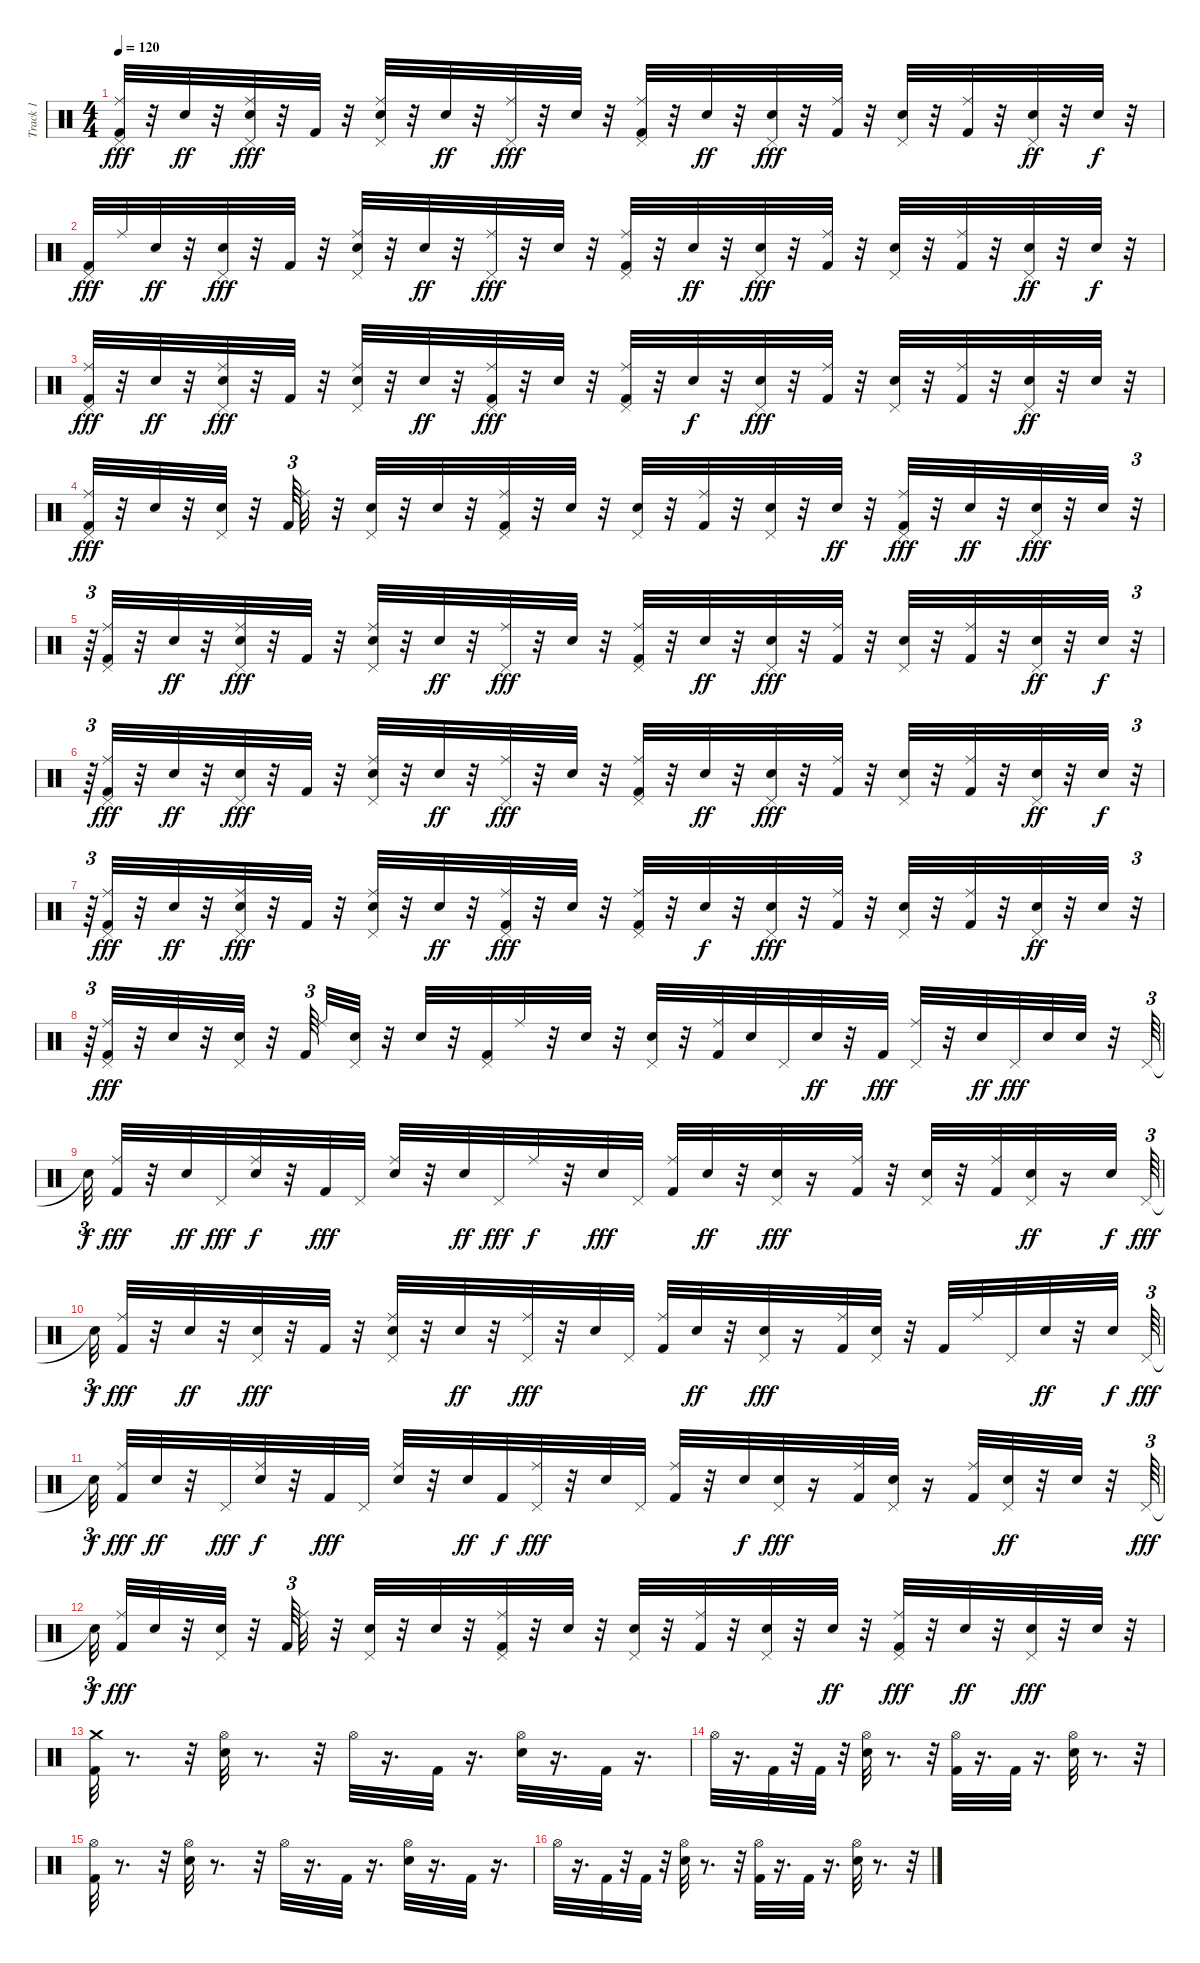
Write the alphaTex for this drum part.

\track ("Track 1" "Track 1") {instrument percussion}
\staff {score}
\articulation defaults
\ts (4 4)
\tempo 120
\clef neutral
\ks c
("Pedal Hi-Hat (hit)" "Kick (hit) 2" "Ride (middle)").32{dy fff} r.32 "Snare (hit) 2".32{dy ff} r.32 ("Pedal Hi-Hat (hit)" "Snare (hit) 2" "Ride (middle)").32{dy fff} r.32 "Kick (hit) 2".32 r.32 ("Pedal Hi-Hat (hit)" "Ride (middle)" "Snare (hit) 2").32 r.32 "Snare (hit) 2".32{dy ff} r.32 ("Pedal Hi-Hat (hit)" "Ride (middle)").32{dy fff} r.32 "Snare (hit) 2".32 r.32 ("Pedal Hi-Hat (hit)" "Kick (hit) 2" "Ride (middle)").32 r.32 "Snare (hit) 2".32{dy ff} r.32 ("Pedal Hi-Hat (hit)" "Snare (hit) 2").32{dy fff} r.32 ("Kick (hit) 2" "Ride (middle)").32 r.32 ("Pedal Hi-Hat (hit)" "Snare (hit) 2").32 r.32 ("Ride (middle)" "Kick (hit) 2").32 r.32 ("Pedal Hi-Hat (hit)" "Snare (hit) 2").32{dy ff} r.32 "Snare (hit) 2".32{dy f} r.32 |
("Pedal Hi-Hat (hit)" "Kick (hit) 2").32{dy fff} "Ride (middle)".32 "Snare (hit) 2".32{dy ff} r.32 ("Pedal Hi-Hat (hit)" "Snare (hit) 2").32{dy fff} r.32 "Kick (hit) 2".32 r.32 ("Pedal Hi-Hat (hit)" "Ride (middle)" "Snare (hit) 2").32 r.32 "Snare (hit) 2".32{dy ff} r.32 ("Pedal Hi-Hat (hit)" "Ride (middle)").32{dy fff} r.32 "Snare (hit) 2".32 r.32 ("Pedal Hi-Hat (hit)" "Kick (hit) 2" "Ride (middle)").32 r.32 "Snare (hit) 2".32{dy ff} r.32 ("Snare (hit) 2" "Pedal Hi-Hat (hit)").32{dy fff} r.32 ("Kick (hit) 2" "Ride (middle)").32 r.32 ("Pedal Hi-Hat (hit)" "Snare (hit) 2").32 r.32 ("Kick (hit) 2" "Ride (middle)").32 r.32 ("Pedal Hi-Hat (hit)" "Snare (hit) 2").32{dy ff} r.32 "Snare (hit) 2".32{dy f} r.32 |
("Pedal Hi-Hat (hit)" "Kick (hit) 2" "Ride (middle)").32{dy fff} r.32 "Snare (hit) 2".32{dy ff} r.32 ("Pedal Hi-Hat (hit)" "Snare (hit) 2" "Ride (middle)").32{dy fff} r.32 "Kick (hit) 2".32 r.32 ("Pedal Hi-Hat (hit)" "Snare (hit) 2" "Ride (middle)").32 r.32 "Snare (hit) 2".32{dy ff} r.32 ("Kick (hit) 2" "Pedal Hi-Hat (hit)" "Ride (middle)").32{dy fff} r.32 "Snare (hit) 2".32 r.32 ("Pedal Hi-Hat (hit)" "Kick (hit) 2" "Ride (middle)").32 r.32 "Snare (hit) 2".32{dy f} r.32 ("Snare (hit) 2" "Pedal Hi-Hat (hit)").32{dy fff} r.32 ("Kick (hit) 2" "Ride (middle)").32 r.32 ("Snare (hit) 2" "Pedal Hi-Hat (hit)").32 r.32 ("Kick (hit) 2" "Ride (middle)").32 r.32 ("Pedal Hi-Hat (hit)" "Snare (hit) 2").32{dy ff} r.32 "Snare (hit) 2".32 r.32 |
("Pedal Hi-Hat (hit)" "Kick (hit) 2" "Ride (middle)").32{dy fff} r.32 "Snare (hit) 2".32 r.32 ("Pedal Hi-Hat (hit)" "Snare (hit) 2").32 r.32 "Kick (hit) 2".64{tu (3 2)} "Ride (middle)".32 r.32 ("Pedal Hi-Hat (hit)" "Snare (hit) 2").32 r.32 "Snare (hit) 2".32 r.32 ("Pedal Hi-Hat (hit)" "Kick (hit) 2" "Ride (middle)").32 r.32 "Snare (hit) 2".32 r.32 ("Snare (hit) 2" "Pedal Hi-Hat (hit)").32 r.32 ("Kick (hit) 2" "Ride (middle)").32 r.32 ("Snare (hit) 2" "Pedal Hi-Hat (hit)").32 r.32 "Snare (hit) 2".32{dy ff} r.32 ("Kick (hit) 2" "Pedal Hi-Hat (hit)" "Ride (middle)").32{dy fff} r.32 "Snare (hit) 2".32{dy ff} r.32 ("Pedal Hi-Hat (hit)" "Snare (hit) 2").32{dy fff} r.32 "Snare (hit) 2".32 r.32{tu (3 2)} |
r.64{tu (3 2)} ("Pedal Hi-Hat (hit)" "Kick (hit) 2" "Ride (middle)").32 r.32 "Snare (hit) 2".32{dy ff} r.32 ("Pedal Hi-Hat (hit)" "Snare (hit) 2" "Ride (middle)").32{dy fff} r.32 "Kick (hit) 2".32 r.32 ("Pedal Hi-Hat (hit)" "Ride (middle)" "Snare (hit) 2").32 r.32 "Snare (hit) 2".32{dy ff} r.32 ("Pedal Hi-Hat (hit)" "Ride (middle)").32{dy fff} r.32 "Snare (hit) 2".32 r.32 ("Pedal Hi-Hat (hit)" "Kick (hit) 2" "Ride (middle)").32 r.32 "Snare (hit) 2".32{dy ff} r.32 ("Pedal Hi-Hat (hit)" "Snare (hit) 2").32{dy fff} r.32 ("Kick (hit) 2" "Ride (middle)").32 r.32 ("Pedal Hi-Hat (hit)" "Snare (hit) 2").32 r.32 ("Ride (middle)" "Kick (hit) 2").32 r.32 ("Pedal Hi-Hat (hit)" "Snare (hit) 2").32{dy ff} r.32 "Snare (hit) 2".32{dy f} r.32{tu (3 2)} |
r.64{tu (3 2)} ("Pedal Hi-Hat (hit)" "Kick (hit) 2" "Ride (middle)").32{dy fff} r.32 "Snare (hit) 2".32{dy ff} r.32 ("Pedal Hi-Hat (hit)" "Snare (hit) 2").32{dy fff} r.32 "Kick (hit) 2".32 r.32 ("Pedal Hi-Hat (hit)" "Ride (middle)" "Snare (hit) 2").32 r.32 "Snare (hit) 2".32{dy ff} r.32 ("Pedal Hi-Hat (hit)" "Ride (middle)").32{dy fff} r.32 "Snare (hit) 2".32 r.32 ("Pedal Hi-Hat (hit)" "Kick (hit) 2" "Ride (middle)").32 r.32 "Snare (hit) 2".32{dy ff} r.32 ("Snare (hit) 2" "Pedal Hi-Hat (hit)").32{dy fff} r.32 ("Kick (hit) 2" "Ride (middle)").32 r.32 ("Pedal Hi-Hat (hit)" "Snare (hit) 2").32 r.32 ("Kick (hit) 2" "Ride (middle)").32 r.32 ("Pedal Hi-Hat (hit)" "Snare (hit) 2").32{dy ff} r.32 "Snare (hit) 2".32{dy f} r.32{tu (3 2)} |
r.64{tu (3 2)} ("Pedal Hi-Hat (hit)" "Kick (hit) 2" "Ride (middle)").32{dy fff} r.32 "Snare (hit) 2".32{dy ff} r.32 ("Pedal Hi-Hat (hit)" "Snare (hit) 2" "Ride (middle)").32{dy fff} r.32 "Kick (hit) 2".32 r.32 ("Pedal Hi-Hat (hit)" "Snare (hit) 2" "Ride (middle)").32 r.32 "Snare (hit) 2".32{dy ff} r.32 ("Kick (hit) 2" "Pedal Hi-Hat (hit)" "Ride (middle)").32{dy fff} r.32 "Snare (hit) 2".32 r.32 ("Pedal Hi-Hat (hit)" "Kick (hit) 2" "Ride (middle)").32 r.32 "Snare (hit) 2".32{dy f} r.32 ("Snare (hit) 2" "Pedal Hi-Hat (hit)").32{dy fff} r.32 ("Kick (hit) 2" "Ride (middle)").32 r.32 ("Snare (hit) 2" "Pedal Hi-Hat (hit)").32 r.32 ("Kick (hit) 2" "Ride (middle)").32 r.32 ("Pedal Hi-Hat (hit)" "Snare (hit) 2").32{dy ff} r.32 "Snare (hit) 2".32 r.32{tu (3 2)} |
r.64{tu (3 2)} ("Pedal Hi-Hat (hit)" "Kick (hit) 2" "Ride (middle)").32{dy fff} r.32 "Snare (hit) 2".32 r.32 ("Pedal Hi-Hat (hit)" "Snare (hit) 2").32 r.32 "Kick (hit) 2".64{tu (3 2) beam splitsecondary} "Ride (middle)".32 ("Pedal Hi-Hat (hit)" "Snare (hit) 2").32 r.32 "Snare (hit) 2".32 r.32 ("Pedal Hi-Hat (hit)" "Kick (hit) 2").32 "Ride (middle)".32 r.32 "Snare (hit) 2".32 r.32 ("Snare (hit) 2" "Pedal Hi-Hat (hit)").32 r.32 ("Kick (hit) 2" "Ride (middle)").32 "Snare (hit) 2".32 "Pedal Hi-Hat (hit)".32 "Snare (hit) 2".32{dy ff} r.32 "Kick (hit) 2".32{dy fff} ("Pedal Hi-Hat (hit)" "Ride (middle)").32 r.32 "Snare (hit) 2".32{dy ff} "Pedal Hi-Hat (hit)".32{dy fff} "Snare (hit) 2".32 "Snare (hit) 2".32 r.32 "Pedal Hi-Hat (hit)".64{tu (3 2)} |
"Snare (hit)"{t}.32{tu (3 2) dy f} ("Kick (hit) 2" "Ride (middle)").32{dy fff} r.32 "Snare (hit) 2".32{dy ff} "Pedal Hi-Hat (hit)".32{dy fff} ("Snare (hit) 2" "Ride (middle)").32{dy f} r.32 "Kick (hit) 2".32{dy fff} "Pedal Hi-Hat (hit)".32 ("Ride (middle)" "Snare (hit) 2").32 r.32 "Snare (hit) 2".32{dy ff} "Pedal Hi-Hat (hit)".32{dy fff} "Ride (middle)".32{dy f} r.32 "Snare (hit) 2".32{dy fff} "Pedal Hi-Hat (hit)".32 ("Kick (hit) 2" "Ride (middle)").32 "Snare (hit) 2".32{dy ff} r.32 ("Pedal Hi-Hat (hit)" "Snare (hit) 2").32{dy fff} r.16 ("Kick (hit) 2" "Ride (middle)").32 r.32 ("Pedal Hi-Hat (hit)" "Snare (hit) 2").32 r.32 ("Ride (middle)" "Kick (hit) 2").32 ("Pedal Hi-Hat (hit)" "Snare (hit) 2").32{dy ff} r.16 "Snare (hit) 2".32{dy f} "Pedal Hi-Hat (hit)".64{tu (3 2) dy fff} |
"Snare (hit)"{t}.32{tu (3 2) dy f} ("Kick (hit) 2" "Ride (middle)").32{dy fff} r.32 "Snare (hit) 2".32{dy ff} r.32 ("Pedal Hi-Hat (hit)" "Snare (hit) 2").32{dy fff} r.32 "Kick (hit) 2".32 r.32 ("Pedal Hi-Hat (hit)" "Ride (middle)" "Snare (hit) 2").32 r.32 "Snare (hit) 2".32{dy ff} r.32 ("Pedal Hi-Hat (hit)" "Ride (middle)").32{dy fff} r.32 "Snare (hit) 2".32 "Pedal Hi-Hat (hit)".32 ("Kick (hit) 2" "Ride (middle)").32 "Snare (hit) 2".32{dy ff} r.32 ("Snare (hit) 2" "Pedal Hi-Hat (hit)").32{dy fff} r.16 ("Kick (hit) 2" "Ride (middle)").32 ("Pedal Hi-Hat (hit)" "Snare (hit) 2").32 r.32 "Kick (hit) 2".32 "Ride (middle)".32 "Pedal Hi-Hat (hit)".32 "Snare (hit) 2".32{dy ff} r.32 "Snare (hit) 2".32{dy f} "Pedal Hi-Hat (hit)".64{tu (3 2) dy fff} |
"Snare (hit)"{t}.32{tu (3 2) dy f beam splitsecondary} ("Kick (hit) 2" "Ride (middle)").32{dy fff} "Snare (hit) 2".32{dy ff} r.32 "Pedal Hi-Hat (hit)".32{dy fff} ("Snare (hit) 2" "Ride (middle)").32{dy f} r.32 "Kick (hit) 2".32{dy fff} "Pedal Hi-Hat (hit)".32 ("Snare (hit) 2" "Ride (middle)").32 r.32 "Snare (hit) 2".32{dy ff} "Kick (hit) 2".32{dy f} ("Pedal Hi-Hat (hit)" "Ride (middle)").32{dy fff} r.32 "Snare (hit) 2".32 "Pedal Hi-Hat (hit)".32 ("Kick (hit) 2" "Ride (middle)").32 r.32 "Snare (hit) 2".32{dy f} ("Snare (hit) 2" "Pedal Hi-Hat (hit)").32{dy fff} r.16 ("Kick (hit) 2" "Ride (middle)").32 ("Snare (hit) 2" "Pedal Hi-Hat (hit)").32 r.16 ("Kick (hit) 2" "Ride (middle)").32 ("Pedal Hi-Hat (hit)" "Snare (hit) 2").32{dy ff} r.32 "Snare (hit) 2".32 r.32 "Pedal Hi-Hat (hit)".64{tu (3 2) dy fff} |
"Snare (hit)"{t}.32{tu (3 2) dy f beam splitsecondary} ("Kick (hit) 2" "Ride (middle)").32{dy fff} "Snare (hit) 2".32 r.32 ("Pedal Hi-Hat (hit)" "Snare (hit) 2").32 r.32 "Kick (hit) 2".64{tu (3 2)} "Ride (middle)".32 r.32 ("Pedal Hi-Hat (hit)" "Snare (hit) 2").32 r.32 "Snare (hit) 2".32 r.32 ("Pedal Hi-Hat (hit)" "Kick (hit) 2" "Ride (middle)").32 r.32 "Snare (hit) 2".32 r.32 ("Snare (hit) 2" "Pedal Hi-Hat (hit)").32 r.32 ("Kick (hit) 2" "Ride (middle)").32 r.32 ("Snare (hit) 2" "Pedal Hi-Hat (hit)").32 r.32 "Snare (hit) 2".32{dy ff} r.32 ("Kick (hit) 2" "Pedal Hi-Hat (hit)" "Ride (middle)").32{dy fff} r.32 "Snare (hit) 2".32{dy ff} r.32 ("Pedal Hi-Hat (hit)" "Snare (hit) 2").32{dy fff} r.32 "Snare (hit) 2".32 r.32 |
("Crash medium (hit)" "Kick (hit) 2").32 r.8{d} r.32 ("Snare (hit) 2" "Hi-Hat (open)").32 r.8{d} r.32 "Hi-Hat (open)".32 r.16{d} "Kick (hit) 2".32 r.16{d} ("Snare (hit) 2" "Hi-Hat (open)").32 r.16{d} "Kick (hit) 2".32 r.16{d} |
"Hi-Hat (open)".32 r.16{d} "Kick (hit) 2".32 r.32 "Kick (hit) 2".32 r.32 ("Snare (hit) 2" "Hi-Hat (open)").32 r.8{d} r.32 ("Hi-Hat (open)" "Kick (hit) 2").32 r.16{d} "Kick (hit) 2".32 r.16{d} ("Snare (hit) 2" "Hi-Hat (open)").32 r.8{d} r.32 |
("Hi-Hat (open)" "Kick (hit) 2").32 r.8{d} r.32 ("Snare (hit) 2" "Hi-Hat (open)").32 r.8{d} r.32 "Hi-Hat (open)".32 r.16{d} "Kick (hit) 2".32 r.16{d} ("Hi-Hat (open)" "Snare (hit) 2").32 r.16{d} "Kick (hit) 2".32 r.16{d} |
"Hi-Hat (open)".32 r.16{d} "Kick (hit) 2".32 r.32 "Kick (hit) 2".32 r.32 ("Snare (hit) 2" "Hi-Hat (open)").32 r.8{d} r.32 ("Hi-Hat (open)" "Kick (hit) 2").32 r.16{d} "Kick (hit) 2".32 r.16{d} ("Snare (hit) 2" "Hi-Hat (open)").32 r.8{d} r.32
